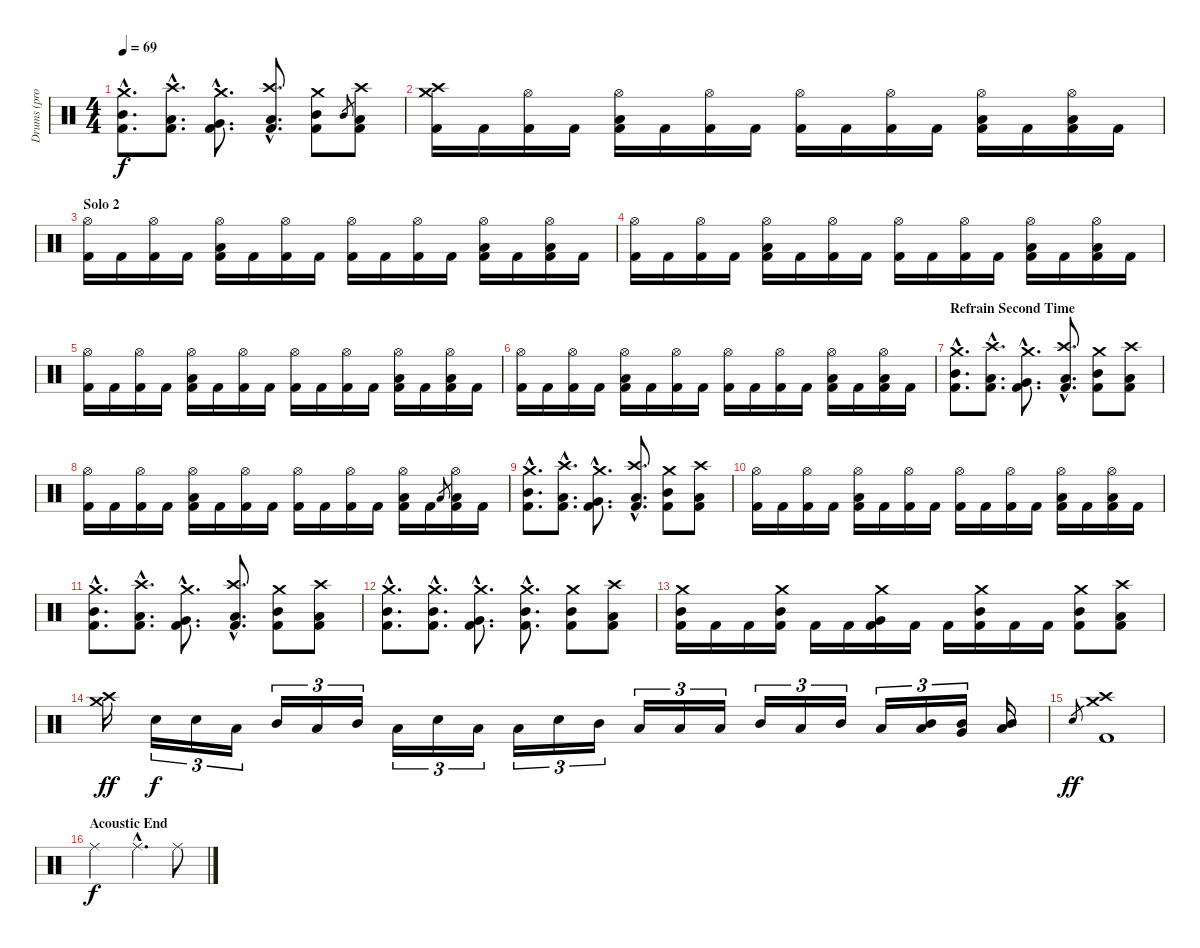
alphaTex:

\track ("Drums (proposal JZ)" "Drums (pro") {instrument percussion}
\staff {score}
\articulation defaults
\ts (4 4)
\tempo 69
\clef neutral
\ks c
("Crash medium (hit)"{hac} "Mid Tom (hit)"{hac} "Kick (hit) 2"{hac}).8{d dy f} ("Crash high (hit)"{hac} "Low Tom (hit)"{hac} "Kick (hit) 2"{hac}).8{d} ("Crash medium (hit)"{hac} "Very Low Tom (hit)"{hac} "Kick (hit) 2"{hac}).8{d} ("Crash high (hit)"{hac} "Low Tom (hit)"{hac} "Kick (hit) 2"{hac}).8{d} ("Crash medium (hit)" "Mid Tom (hit)" "Kick (hit) 2").8 "Mid Tom (hit)".8{gr} ("Crash high (hit)" "Low Tom (hit)" "Kick (hit) 2").8 |
("Crash high (hit)" "Crash medium (hit)" "Kick (hit) 2").16 "Kick (hit) 2".16 ("Hi-Hat (open)" "Kick (hit) 2").16 "Kick (hit) 2".16 ("Hi-Hat (open)" "Low Tom (hit)" "Kick (hit) 2").16 "Kick (hit) 2".16 ("Hi-Hat (open)" "Kick (hit) 2").16 "Kick (hit) 2".16 ("Hi-Hat (open)" "Kick (hit) 2").16 "Kick (hit) 2".16 ("Hi-Hat (open)" "Kick (hit) 2").16 "Kick (hit) 2".16 ("Hi-Hat (open)" "Low Tom (hit)" "Kick (hit) 2").16 "Kick (hit) 2".16 ("Hi-Hat (open)" "Low Tom (hit)" "Kick (hit) 2").16 "Kick (hit) 2".16 |
\section ("" "Solo 2")
("Hi-Hat (open)" "Kick (hit) 2").16 "Kick (hit) 2".16 ("Hi-Hat (open)" "Kick (hit) 2").16 "Kick (hit) 2".16 ("Hi-Hat (open)" "Low Tom (hit)" "Kick (hit) 2").16 "Kick (hit) 2".16 ("Hi-Hat (open)" "Kick (hit) 2").16 "Kick (hit) 2".16 ("Hi-Hat (open)" "Kick (hit) 2").16 "Kick (hit) 2".16 ("Hi-Hat (open)" "Kick (hit) 2").16 "Kick (hit) 2".16 ("Hi-Hat (open)" "Low Tom (hit)" "Kick (hit) 2").16 "Kick (hit) 2".16 ("Hi-Hat (open)" "Low Tom (hit)" "Kick (hit) 2").16 "Kick (hit) 2".16 |
("Hi-Hat (open)" "Kick (hit) 2").16 "Kick (hit) 2".16 ("Hi-Hat (open)" "Kick (hit) 2").16 "Kick (hit) 2".16 ("Hi-Hat (open)" "Low Tom (hit)" "Kick (hit) 2").16 "Kick (hit) 2".16 ("Hi-Hat (open)" "Kick (hit) 2").16 "Kick (hit) 2".16 ("Hi-Hat (open)" "Kick (hit) 2").16 "Kick (hit) 2".16 ("Hi-Hat (open)" "Kick (hit) 2").16 "Kick (hit) 2".16 ("Hi-Hat (open)" "Low Tom (hit)" "Kick (hit) 2").16 "Kick (hit) 2".16 ("Hi-Hat (open)" "Low Tom (hit)" "Kick (hit) 2").16 "Kick (hit) 2".16 |
("Hi-Hat (open)" "Kick (hit) 2").16 "Kick (hit) 2".16 ("Hi-Hat (open)" "Kick (hit) 2").16 "Kick (hit) 2".16 ("Hi-Hat (open)" "Low Tom (hit)" "Kick (hit) 2").16 "Kick (hit) 2".16 ("Hi-Hat (open)" "Kick (hit) 2").16 "Kick (hit) 2".16 ("Hi-Hat (open)" "Kick (hit) 2").16 "Kick (hit) 2".16 ("Hi-Hat (open)" "Kick (hit) 2").16 "Kick (hit) 2".16 ("Hi-Hat (open)" "Low Tom (hit)" "Kick (hit) 2").16 "Kick (hit) 2".16 ("Hi-Hat (open)" "Low Tom (hit)" "Kick (hit) 2").16 "Kick (hit) 2".16 |
("Hi-Hat (open)" "Kick (hit) 2").16 "Kick (hit) 2".16 ("Hi-Hat (open)" "Kick (hit) 2").16 "Kick (hit) 2".16 ("Hi-Hat (open)" "Low Tom (hit)" "Kick (hit) 2").16 "Kick (hit) 2".16 ("Hi-Hat (open)" "Kick (hit) 2").16 "Kick (hit) 2".16 ("Hi-Hat (open)" "Kick (hit) 2").16 "Kick (hit) 2".16 ("Hi-Hat (open)" "Kick (hit) 2").16 "Kick (hit) 2".16 ("Hi-Hat (open)" "Low Tom (hit)" "Kick (hit) 2").16 "Kick (hit) 2".16 ("Hi-Hat (open)" "Low Tom (hit)" "Kick (hit) 2").16 "Kick (hit) 2".16 |
\section ("" "Refrain Second Time")
("Crash medium (hit)"{hac} "Mid Tom (hit)"{hac} "Kick (hit) 2"{hac}).8{d} ("Crash high (hit)"{hac} "Low Tom (hit)"{hac} "Kick (hit) 2"{hac}).8{d} ("Crash medium (hit)"{hac} "Very Low Tom (hit)"{hac} "Kick (hit) 2"{hac}).8{d} ("Crash high (hit)"{hac} "Low Tom (hit)"{hac} "Kick (hit) 2"{hac}).8{d} ("Crash medium (hit)" "Mid Tom (hit)" "Kick (hit) 2").8 ("Crash high (hit)" "Low Tom (hit)" "Kick (hit) 2").8 |
("Hi-Hat (open)" "Kick (hit) 2").16 "Kick (hit) 2".16 ("Hi-Hat (open)" "Kick (hit) 2").16 "Kick (hit) 2".16 ("Hi-Hat (open)" "Low Tom (hit)" "Kick (hit) 2").16 "Kick (hit) 2".16 ("Hi-Hat (open)" "Kick (hit) 2").16 "Kick (hit) 2".16 ("Hi-Hat (open)" "Kick (hit) 2").16 "Kick (hit) 2".16 ("Hi-Hat (open)" "Kick (hit) 2").16 "Kick (hit) 2".16 ("Hi-Hat (open)" "Low Tom (hit)" "Kick (hit) 2").16 "Kick (hit) 2".16 "Low Tom (hit)".8{gr} ("Hi-Hat (open)" "Low Tom (hit)" "Kick (hit) 2").16 "Kick (hit) 2".16 |
("Crash medium (hit)"{hac} "Mid Tom (hit)"{hac} "Kick (hit) 2"{hac}).8{d} ("Crash high (hit)"{hac} "Low Tom (hit)"{hac} "Kick (hit) 2"{hac}).8{d} ("Crash medium (hit)"{hac} "Very Low Tom (hit)"{hac} "Kick (hit) 2"{hac}).8{d} ("Crash high (hit)"{hac} "Low Tom (hit)"{hac} "Kick (hit) 2"{hac}).8{d} ("Crash medium (hit)" "Mid Tom (hit)" "Kick (hit) 2").8 ("Crash high (hit)" "Low Tom (hit)" "Kick (hit) 2").8 |
("Hi-Hat (open)" "Kick (hit) 2").16 "Kick (hit) 2".16 ("Hi-Hat (open)" "Kick (hit) 2").16 "Kick (hit) 2".16 ("Hi-Hat (open)" "Low Tom (hit)" "Kick (hit) 2").16 "Kick (hit) 2".16 ("Hi-Hat (open)" "Kick (hit) 2").16 "Kick (hit) 2".16 ("Hi-Hat (open)" "Kick (hit) 2").16 "Kick (hit) 2".16 ("Hi-Hat (open)" "Kick (hit) 2").16 "Kick (hit) 2".16 ("Hi-Hat (open)" "Low Tom (hit)" "Kick (hit) 2").16 "Kick (hit) 2".16 ("Hi-Hat (open)" "Low Tom (hit)" "Kick (hit) 2").16 "Kick (hit) 2".16 |
("Crash medium (hit)"{hac} "Mid Tom (hit)"{hac} "Kick (hit) 2"{hac}).8{d} ("Crash high (hit)"{hac} "Low Tom (hit)"{hac} "Kick (hit) 2"{hac}).8{d} ("Crash medium (hit)"{hac} "Very Low Tom (hit)"{hac} "Kick (hit) 2"{hac}).8{d} ("Crash high (hit)"{hac} "Low Tom (hit)"{hac} "Kick (hit) 2"{hac}).8{d} ("Crash medium (hit)" "Mid Tom (hit)" "Kick (hit) 2").8 ("Crash high (hit)" "Low Tom (hit)" "Kick (hit) 2").8 |
("Crash medium (hit)"{hac} "Mid Tom (hit)"{hac} "Kick (hit) 2"{hac}).8{d} ("Crash medium (hit)"{hac} "Mid Tom (hit)"{hac} "Kick (hit) 2"{hac}).8{d} ("Crash medium (hit)"{hac} "Very Low Tom (hit)"{hac} "Kick (hit) 2"{hac}).8{d} ("Crash medium (hit)"{hac} "Mid Tom (hit)"{hac} "Kick (hit) 2"{hac}).8{d} ("Crash medium (hit)" "Mid Tom (hit)" "Kick (hit) 2").8 ("Crash high (hit)" "Low Tom (hit)" "Kick (hit) 2").8 |
("Crash medium (hit)" "Mid Tom (hit)" "Kick (hit) 2").16 "Kick (hit) 2".16 "Kick (hit) 2".16 ("Crash medium (hit)" "Mid Tom (hit)" "Kick (hit) 2").16 "Kick (hit) 2".16 "Kick (hit) 2".16 ("Crash medium (hit)" "Very Low Tom (hit)" "Kick (hit) 2").16 "Kick (hit) 2".16 "Kick (hit) 2".16 ("Crash medium (hit)" "Mid Tom (hit)" "Kick (hit) 2").16 "Kick (hit) 2".16 "Kick (hit) 2".16 ("Crash medium (hit)" "Mid Tom (hit)" "Kick (hit) 2").8 ("Crash high (hit)" "Low Tom (hit)" "Kick (hit) 2").8 |
("Crash medium (hit)" "Crash high (hit)").16{dy ff} "Electric Snare (hit)".16{tu (3 2) dy f} "Electric Snare (hit)".16{tu (3 2)} "Low Tom (hit)".16{tu (3 2)} "Mid Tom (hit)".16{tu (3 2)} "Low Tom (hit)".16{tu (3 2)} "Mid Tom (hit)".16{tu (3 2)} "Low Floor Tom (hit)".16{tu (3 2)} "Electric Snare (hit)".16{tu (3 2)} "Low Tom (hit)".16{tu (3 2)} "Low Floor Tom (hit)".16{tu (3 2)} "Electric Snare (hit)".16{tu (3 2)} "Mid Tom (hit)".16{tu (3 2)} "Low Floor Tom (hit)".16{tu (3 2)} "Low Floor Tom (hit)".16{tu (3 2)} "Low Floor Tom (hit)".16{tu (3 2)} "Mid Tom (hit)".16{tu (3 2)} "Low Tom (hit)".16{tu (3 2)} "Mid Tom (hit)".16{tu (3 2)} "Low Floor Tom (hit)".16{tu (3 2)} ("Low Tom (hit)" "Mid Tom (hit)").16{tu (3 2)} ("Very Low Tom (hit)" "Mid Tom (hit)").16{tu (3 2)} ("Low Floor Tom (hit)" "Mid Tom (hit)").16 |
"Electric Snare (hit)".8{gr dy ff} ("Crash medium (hit)" "Crash high (hit)" "Kick (hit) 2").1 |
\section ("" "Acoustic End")
"Ride (middle)".2{dy f} "Ride (middle)"{hac}.4{d} "Ride (middle)".8
